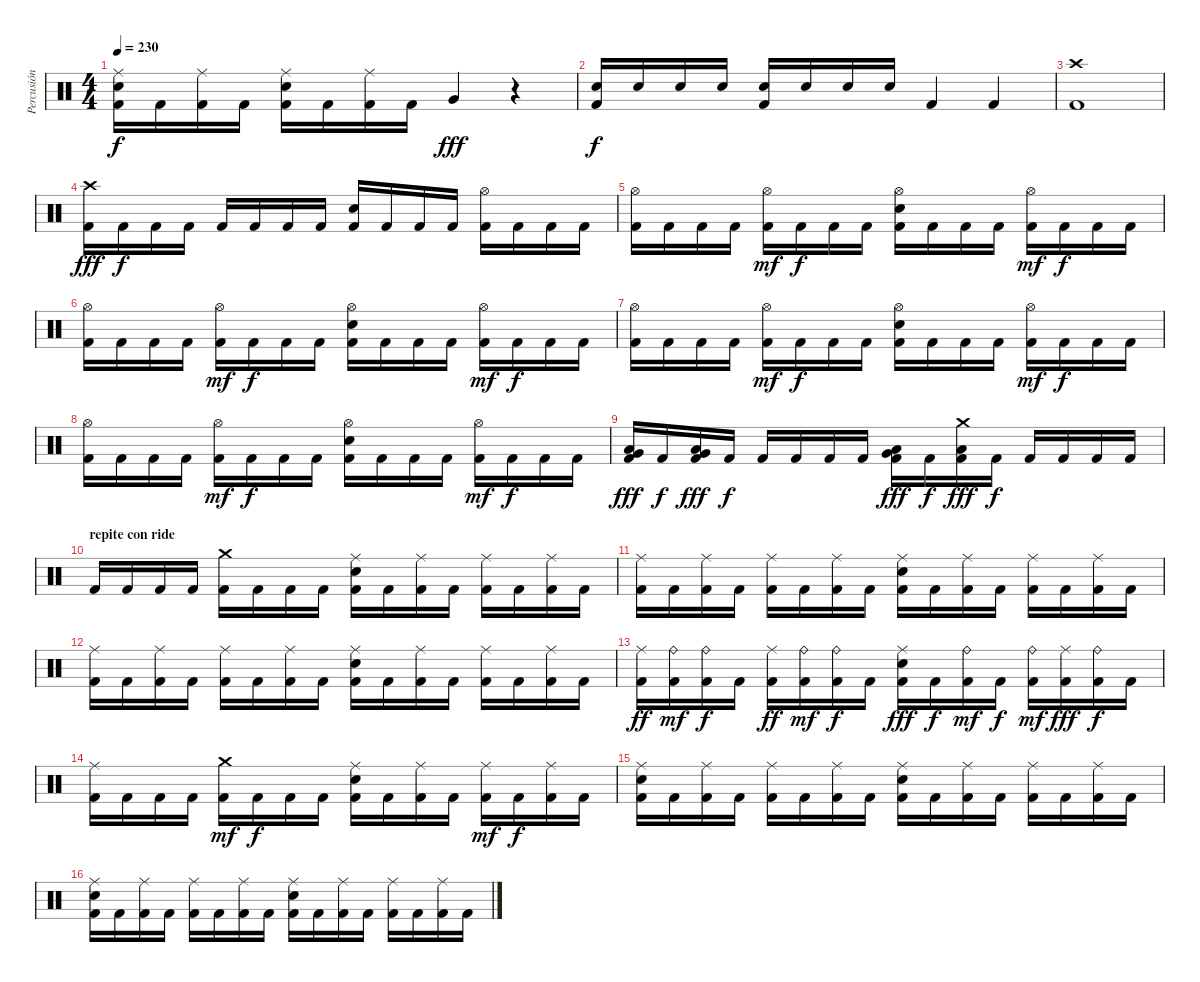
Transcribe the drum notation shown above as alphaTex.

\track ("Percusión" "Percusión") {instrument percussion}
\staff {score}
\articulation defaults
\ts (4 4)
\tempo 230
\clef neutral
\ks c
("Ride (middle)" "Kick (hit) 2" "Snare (hit) 2").16{dy f} "Kick (hit) 2".16 ("Ride (middle)" "Kick (hit) 2").16 "Kick (hit) 2".16 ("Ride (middle)" "Kick (hit) 2" "Snare (hit) 2").16 "Kick (hit) 2".16 ("Ride (middle)" "Kick (hit) 2").16 "Kick (hit) 2".16 "Very Low Tom (hit)".4{dy fff} r.4 |
("Kick (hit) 2" "Snare (hit) 2").16{dy f} "Snare (hit) 2".16 "Snare (hit) 2".16 "Snare (hit) 2".16 ("Kick (hit) 2" "Snare (hit) 2").16 "Snare (hit) 2".16 "Snare (hit) 2".16 "Snare (hit) 2".16 "Kick (hit) 2".4 "Kick (hit) 2".4 |
("Kick (hit) 2" "Crash high (hit)").1 |
("Crash high (hit)" "Kick (hit) 2").16{dy fff} "Kick (hit) 2".16{dy f} "Kick (hit) 2".16 "Kick (hit) 2".16 "Kick (hit) 2".16 "Kick (hit) 2".16 "Kick (hit) 2".16 "Kick (hit) 2".16 ("Kick (hit) 2" "Snare (hit) 2").16 "Kick (hit) 2".16 "Kick (hit) 2".16 "Kick (hit) 2".16 ("Hi-Hat (open)" "Kick (hit) 2").16 "Kick (hit) 2".16 "Kick (hit) 2".16 "Kick (hit) 2".16 |
("Hi-Hat (open)" "Kick (hit) 2").16 "Kick (hit) 2".16 "Kick (hit) 2".16 "Kick (hit) 2".16 ("Hi-Hat (open)" "Kick (hit) 2").16{dy mf} "Kick (hit) 2".16{dy f} "Kick (hit) 2".16 "Kick (hit) 2".16 ("Hi-Hat (open)" "Kick (hit) 2" "Snare (hit) 2").16 "Kick (hit) 2".16 "Kick (hit) 2".16 "Kick (hit) 2".16 ("Hi-Hat (open)" "Kick (hit) 2").16{dy mf} "Kick (hit) 2".16{dy f} "Kick (hit) 2".16 "Kick (hit) 2".16 |
("Hi-Hat (open)" "Kick (hit) 2").16 "Kick (hit) 2".16 "Kick (hit) 2".16 "Kick (hit) 2".16 ("Hi-Hat (open)" "Kick (hit) 2").16{dy mf} "Kick (hit) 2".16{dy f} "Kick (hit) 2".16 "Kick (hit) 2".16 ("Hi-Hat (open)" "Kick (hit) 2" "Snare (hit) 2").16 "Kick (hit) 2".16 "Kick (hit) 2".16 "Kick (hit) 2".16 ("Hi-Hat (open)" "Kick (hit) 2").16{dy mf} "Kick (hit) 2".16{dy f} "Kick (hit) 2".16 "Kick (hit) 2".16 |
("Hi-Hat (open)" "Kick (hit) 2").16 "Kick (hit) 2".16 "Kick (hit) 2".16 "Kick (hit) 2".16 ("Hi-Hat (open)" "Kick (hit) 2").16{dy mf} "Kick (hit) 2".16{dy f} "Kick (hit) 2".16 "Kick (hit) 2".16 ("Hi-Hat (open)" "Kick (hit) 2" "Snare (hit) 2").16 "Kick (hit) 2".16 "Kick (hit) 2".16 "Kick (hit) 2".16 ("Hi-Hat (open)" "Kick (hit) 2").16{dy mf} "Kick (hit) 2".16{dy f} "Kick (hit) 2".16 "Kick (hit) 2".16 |
("Hi-Hat (open)" "Kick (hit) 2").16 "Kick (hit) 2".16 "Kick (hit) 2".16 "Kick (hit) 2".16 ("Hi-Hat (open)" "Kick (hit) 2").16{dy mf} "Kick (hit) 2".16{dy f} "Kick (hit) 2".16 "Kick (hit) 2".16 ("Hi-Hat (open)" "Kick (hit) 2" "Snare (hit) 2").16 "Kick (hit) 2".16 "Kick (hit) 2".16 "Kick (hit) 2".16 ("Hi-Hat (open)" "Kick (hit) 2").16{dy mf} "Kick (hit) 2".16{dy f} "Kick (hit) 2".16 "Kick (hit) 2".16 |
("Kick (hit) 2" "Very Low Tom (hit)" "Low Floor Tom (hit)").16{dy fff} "Kick (hit) 2".16{dy f} ("Kick (hit) 2" "Very Low Tom (hit)" "Low Floor Tom (hit)").16{dy fff} "Kick (hit) 2".16{dy f} "Kick (hit) 2".16 "Kick (hit) 2".16 "Kick (hit) 2".16 "Kick (hit) 2".16 ("Kick (hit) 2" "Very Low Tom (hit)" "Low Floor Tom (hit)").16{dy fff} "Kick (hit) 2".16{dy f} ("Crash medium (hit)" "Kick (hit) 2" "Low Floor Tom (hit)").16{dy fff} "Kick (hit) 2".16{dy f} "Kick (hit) 2".16 "Kick (hit) 2".16 "Kick (hit) 2".16 "Kick (hit) 2".16 |
\section ("" "repite con ride")
"Kick (hit) 2".16 "Kick (hit) 2".16 "Kick (hit) 2".16 "Kick (hit) 2".16 ("Crash medium (hit)" "Kick (hit) 2").16 "Kick (hit) 2".16 "Kick (hit) 2".16 "Kick (hit) 2".16 ("Ride (middle)" "Kick (hit) 2" "Snare (hit) 2").16 "Kick (hit) 2".16 ("Ride (middle)" "Kick (hit) 2").16 "Kick (hit) 2".16 ("Ride (middle)" "Kick (hit) 2").16 "Kick (hit) 2".16 ("Ride (middle)" "Kick (hit) 2").16 "Kick (hit) 2".16 |
("Ride (middle)" "Kick (hit) 2").16 "Kick (hit) 2".16 ("Ride (middle)" "Kick (hit) 2").16 "Kick (hit) 2".16 ("Ride (middle)" "Kick (hit) 2").16 "Kick (hit) 2".16 ("Ride (middle)" "Kick (hit) 2").16 "Kick (hit) 2".16 ("Ride (middle)" "Kick (hit) 2" "Snare (hit) 2").16 "Kick (hit) 2".16 ("Ride (middle)" "Kick (hit) 2").16 "Kick (hit) 2".16 ("Ride (middle)" "Kick (hit) 2").16 "Kick (hit) 2".16 ("Ride (middle)" "Kick (hit) 2").16 "Kick (hit) 2".16 |
("Ride (middle)" "Kick (hit) 2").16 "Kick (hit) 2".16 ("Ride (middle)" "Kick (hit) 2").16 "Kick (hit) 2".16 ("Ride (middle)" "Kick (hit) 2").16 "Kick (hit) 2".16 ("Ride (middle)" "Kick (hit) 2").16 "Kick (hit) 2".16 ("Ride (middle)" "Kick (hit) 2" "Snare (hit) 2").16 "Kick (hit) 2".16 ("Ride (middle)" "Kick (hit) 2").16 "Kick (hit) 2".16 ("Ride (middle)" "Kick (hit) 2").16 "Kick (hit) 2".16 ("Ride (middle)" "Kick (hit) 2").16 "Kick (hit) 2".16 |
("Ride (middle)" "Kick (hit) 2").16{dy ff} ("Ride (bell)" "Kick (hit) 2").16{dy mf} ("Ride (bell)" "Kick (hit) 2").16{dy f} "Kick (hit) 2".16 ("Ride (middle)" "Kick (hit) 2").16{dy ff} ("Ride (bell)" "Kick (hit) 2").16{dy mf} ("Ride (bell)" "Kick (hit) 2").16{dy f} "Kick (hit) 2".16 ("Ride (middle)" "Kick (hit) 2" "Snare (hit) 2").16{dy fff} "Kick (hit) 2".16{dy f} ("Ride (bell)" "Kick (hit) 2").16{dy mf} "Kick (hit) 2".16{dy f} ("Ride (bell)" "Kick (hit) 2").16{dy mf} ("Ride (middle)" "Kick (hit) 2").16{dy fff} ("Ride (bell)" "Kick (hit) 2").16{dy f} "Kick (hit) 2".16 |
("Ride (middle)" "Kick (hit) 2").16 "Kick (hit) 2".16 "Kick (hit) 2".16 "Kick (hit) 2".16 ("Crash medium (hit)" "Kick (hit) 2").16{dy mf} "Kick (hit) 2".16{dy f} "Kick (hit) 2".16 "Kick (hit) 2".16 ("Ride (middle)" "Kick (hit) 2" "Snare (hit) 2").16 "Kick (hit) 2".16 ("Ride (middle)" "Kick (hit) 2").16 "Kick (hit) 2".16 ("Ride (middle)" "Kick (hit) 2").16{dy mf} "Kick (hit) 2".16{dy f} ("Ride (middle)" "Kick (hit) 2").16 "Kick (hit) 2".16 |
("Ride (middle)" "Kick (hit) 2" "Snare (hit) 2").16 "Kick (hit) 2".16 ("Ride (middle)" "Kick (hit) 2").16 "Kick (hit) 2".16 ("Ride (middle)" "Kick (hit) 2").16 "Kick (hit) 2".16 ("Ride (middle)" "Kick (hit) 2").16 "Kick (hit) 2".16 ("Ride (middle)" "Kick (hit) 2" "Snare (hit) 2").16 "Kick (hit) 2".16 ("Ride (middle)" "Kick (hit) 2").16 "Kick (hit) 2".16 ("Ride (middle)" "Kick (hit) 2").16 "Kick (hit) 2".16 ("Ride (middle)" "Kick (hit) 2").16 "Kick (hit) 2".16 |
("Ride (middle)" "Kick (hit) 2" "Snare (hit) 2").16 "Kick (hit) 2".16 ("Ride (middle)" "Kick (hit) 2").16 "Kick (hit) 2".16 ("Ride (middle)" "Kick (hit) 2").16 "Kick (hit) 2".16 ("Ride (middle)" "Kick (hit) 2").16 "Kick (hit) 2".16 ("Ride (middle)" "Kick (hit) 2" "Snare (hit) 2").16 "Kick (hit) 2".16 ("Ride (middle)" "Kick (hit) 2").16 "Kick (hit) 2".16 ("Ride (middle)" "Kick (hit) 2").16 "Kick (hit) 2".16 ("Ride (middle)" "Kick (hit) 2").16 "Kick (hit) 2".16
